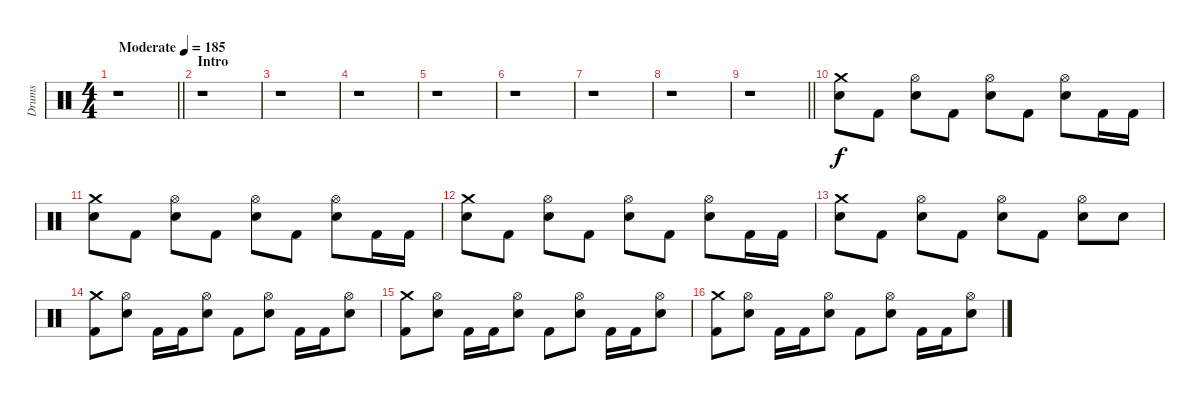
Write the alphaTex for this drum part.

\track ("Drums" "Drums") {instrument percussion}
\staff {score}
\articulation defaults
\ts (4 4)
\tempo (185 "Moderate")
\clef neutral
\barLineRight lightlight
\ks c
r.1{dy f} |
\section ("" "Intro")
r.1 |
r.1 |
r.1 |
r.1 |
r.1 |
r.1 |
r.1 |
\barLineRight lightlight
r.1 |
\section ("" "")
("Crash medium (hit)" "Snare (hit) 2").8 "Kick (hit) 2".8 ("Hi-Hat (open)" "Snare (hit) 2").8 "Kick (hit) 2".8 ("Hi-Hat (open)" "Snare (hit) 2").8 "Kick (hit) 2".8 ("Hi-Hat (open)" "Snare (hit) 2").8 "Kick (hit) 2".16 "Kick (hit) 2".16 |
("Crash medium (hit)" "Snare (hit) 2").8 "Kick (hit) 2".8 ("Hi-Hat (open)" "Snare (hit) 2").8 "Kick (hit) 2".8 ("Hi-Hat (open)" "Snare (hit) 2").8 "Kick (hit) 2".8 ("Hi-Hat (open)" "Snare (hit) 2").8 "Kick (hit) 2".16 "Kick (hit) 2".16 |
("Crash medium (hit)" "Snare (hit) 2").8 "Kick (hit) 2".8 ("Hi-Hat (open)" "Snare (hit) 2").8 "Kick (hit) 2".8 ("Hi-Hat (open)" "Snare (hit) 2").8 "Kick (hit) 2".8 ("Hi-Hat (open)" "Snare (hit) 2").8 "Kick (hit) 2".16 "Kick (hit) 2".16 |
("Crash medium (hit)" "Snare (hit) 2").8 "Kick (hit) 2".8 ("Hi-Hat (open)" "Snare (hit) 2").8 "Kick (hit) 2".8 ("Hi-Hat (open)" "Snare (hit) 2").8 "Kick (hit) 2".8 ("Hi-Hat (open)" "Snare (hit) 2").8 "Snare (hit) 2".8 |
("Crash medium (hit)" "Kick (hit) 2").8 ("Hi-Hat (open)" "Snare (hit) 2").8 "Kick (hit) 2".16 "Kick (hit) 2".16 ("Hi-Hat (open)" "Snare (hit) 2").8 "Kick (hit) 2".8 ("Hi-Hat (open)" "Snare (hit) 2").8 "Kick (hit) 2".16 "Kick (hit) 2".16 ("Hi-Hat (open)" "Snare (hit) 2").8 |
("Crash medium (hit)" "Kick (hit) 2").8 ("Hi-Hat (open)" "Snare (hit) 2").8 "Kick (hit) 2".16 "Kick (hit) 2".16 ("Hi-Hat (open)" "Snare (hit) 2").8 "Kick (hit) 2".8 ("Hi-Hat (open)" "Snare (hit) 2").8 "Kick (hit) 2".16 "Kick (hit) 2".16 ("Hi-Hat (open)" "Snare (hit) 2").8 |
("Crash medium (hit)" "Kick (hit) 2").8 ("Hi-Hat (open)" "Snare (hit) 2").8 "Kick (hit) 2".16 "Kick (hit) 2".16 ("Hi-Hat (open)" "Snare (hit) 2").8 "Kick (hit) 2".8 ("Hi-Hat (open)" "Snare (hit) 2").8 "Kick (hit) 2".16 "Kick (hit) 2".16 ("Hi-Hat (open)" "Snare (hit) 2").8
